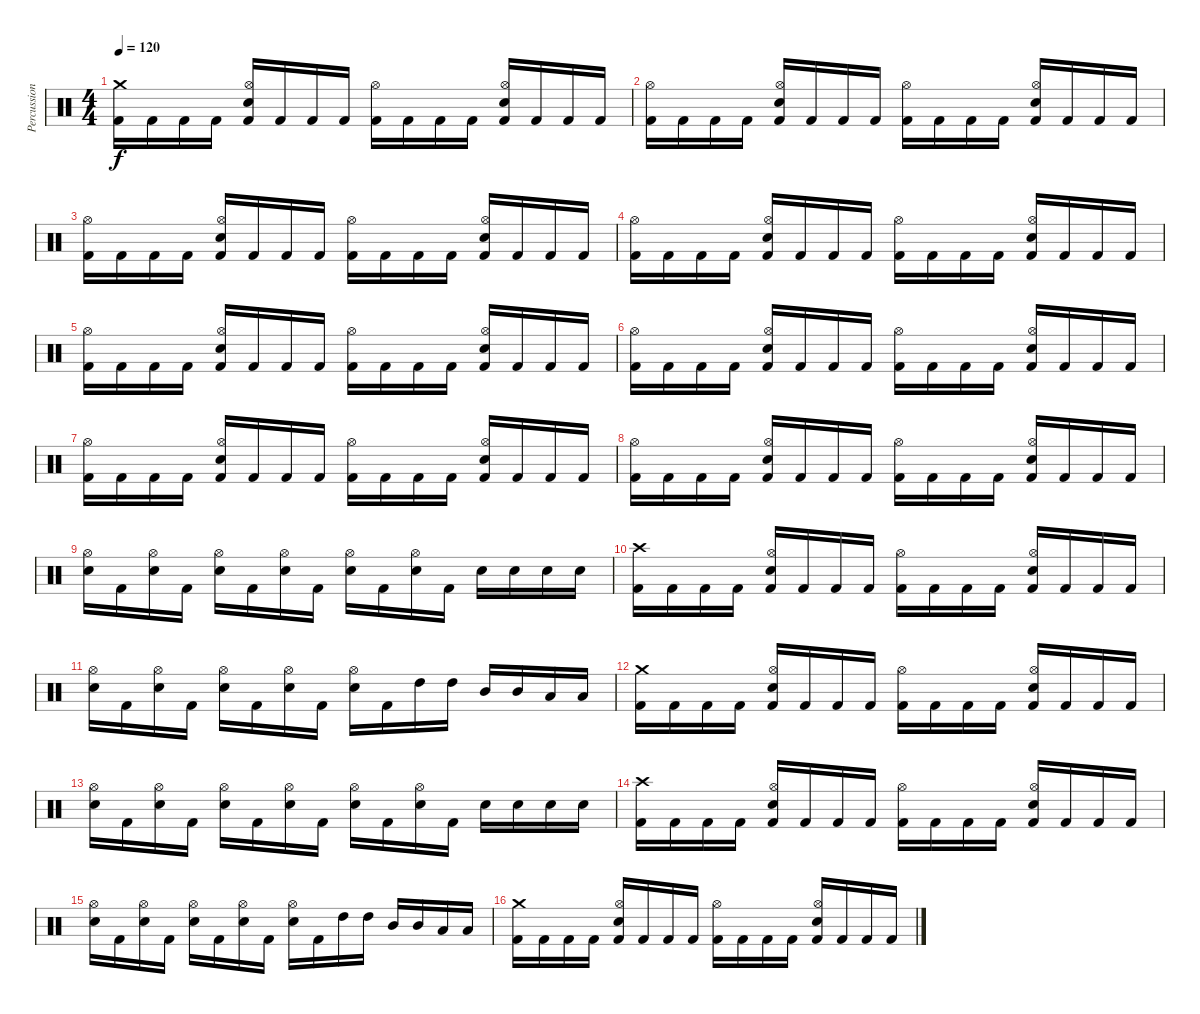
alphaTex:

\track ("Percussion" "Percussion") {instrument percussion}
\staff {score}
\articulation defaults
\ts (4 4)
\tempo 120
\clef neutral
\ks c
("Kick (hit) 2" "Crash medium (hit)").16{dy f} "Kick (hit) 2".16 "Kick (hit) 2".16 "Kick (hit) 2".16 ("Kick (hit) 2" "Hi-Hat (open)" "Electric Snare (hit)").16 "Kick (hit) 2".16 "Kick (hit) 2".16 "Kick (hit) 2".16 ("Kick (hit) 2" "Hi-Hat (open)").16 "Kick (hit) 2".16 "Kick (hit) 2".16 "Kick (hit) 2".16 ("Kick (hit) 2" "Hi-Hat (open)" "Electric Snare (hit)").16 "Kick (hit) 2".16 "Kick (hit) 2".16 "Kick (hit) 2".16 |
("Kick (hit) 2" "Hi-Hat (open)").16 "Kick (hit) 2".16 "Kick (hit) 2".16 "Kick (hit) 2".16 ("Kick (hit) 2" "Hi-Hat (open)" "Electric Snare (hit)").16 "Kick (hit) 2".16 "Kick (hit) 2".16 "Kick (hit) 2".16 ("Kick (hit) 2" "Hi-Hat (open)").16 "Kick (hit) 2".16 "Kick (hit) 2".16 "Kick (hit) 2".16 ("Kick (hit) 2" "Hi-Hat (open)" "Electric Snare (hit)").16 "Kick (hit) 2".16 "Kick (hit) 2".16 "Kick (hit) 2".16 |
("Kick (hit) 2" "Hi-Hat (open)").16 "Kick (hit) 2".16 "Kick (hit) 2".16 "Kick (hit) 2".16 ("Kick (hit) 2" "Hi-Hat (open)" "Electric Snare (hit)").16 "Kick (hit) 2".16 "Kick (hit) 2".16 "Kick (hit) 2".16 ("Kick (hit) 2" "Hi-Hat (open)").16 "Kick (hit) 2".16 "Kick (hit) 2".16 "Kick (hit) 2".16 ("Kick (hit) 2" "Hi-Hat (open)" "Electric Snare (hit)").16 "Kick (hit) 2".16 "Kick (hit) 2".16 "Kick (hit) 2".16 |
("Kick (hit) 2" "Hi-Hat (open)").16 "Kick (hit) 2".16 "Kick (hit) 2".16 "Kick (hit) 2".16 ("Kick (hit) 2" "Hi-Hat (open)" "Electric Snare (hit)").16 "Kick (hit) 2".16 "Kick (hit) 2".16 "Kick (hit) 2".16 ("Kick (hit) 2" "Hi-Hat (open)").16 "Kick (hit) 2".16 "Kick (hit) 2".16 "Kick (hit) 2".16 ("Kick (hit) 2" "Hi-Hat (open)" "Electric Snare (hit)").16 "Kick (hit) 2".16 "Kick (hit) 2".16 "Kick (hit) 2".16 |
("Kick (hit) 2" "Hi-Hat (open)").16 "Kick (hit) 2".16 "Kick (hit) 2".16 "Kick (hit) 2".16 ("Kick (hit) 2" "Hi-Hat (open)" "Electric Snare (hit)").16 "Kick (hit) 2".16 "Kick (hit) 2".16 "Kick (hit) 2".16 ("Kick (hit) 2" "Hi-Hat (open)").16 "Kick (hit) 2".16 "Kick (hit) 2".16 "Kick (hit) 2".16 ("Kick (hit) 2" "Hi-Hat (open)" "Electric Snare (hit)").16 "Kick (hit) 2".16 "Kick (hit) 2".16 "Kick (hit) 2".16 |
("Kick (hit) 2" "Hi-Hat (open)").16 "Kick (hit) 2".16 "Kick (hit) 2".16 "Kick (hit) 2".16 ("Kick (hit) 2" "Hi-Hat (open)" "Electric Snare (hit)").16 "Kick (hit) 2".16 "Kick (hit) 2".16 "Kick (hit) 2".16 ("Kick (hit) 2" "Hi-Hat (open)").16 "Kick (hit) 2".16 "Kick (hit) 2".16 "Kick (hit) 2".16 ("Kick (hit) 2" "Hi-Hat (open)" "Electric Snare (hit)").16 "Kick (hit) 2".16 "Kick (hit) 2".16 "Kick (hit) 2".16 |
("Kick (hit) 2" "Hi-Hat (open)").16 "Kick (hit) 2".16 "Kick (hit) 2".16 "Kick (hit) 2".16 ("Kick (hit) 2" "Hi-Hat (open)" "Electric Snare (hit)").16 "Kick (hit) 2".16 "Kick (hit) 2".16 "Kick (hit) 2".16 ("Kick (hit) 2" "Hi-Hat (open)").16 "Kick (hit) 2".16 "Kick (hit) 2".16 "Kick (hit) 2".16 ("Kick (hit) 2" "Hi-Hat (open)" "Electric Snare (hit)").16 "Kick (hit) 2".16 "Kick (hit) 2".16 "Kick (hit) 2".16 |
("Kick (hit) 2" "Hi-Hat (open)").16 "Kick (hit) 2".16 "Kick (hit) 2".16 "Kick (hit) 2".16 ("Kick (hit) 2" "Hi-Hat (open)" "Electric Snare (hit)").16 "Kick (hit) 2".16 "Kick (hit) 2".16 "Kick (hit) 2".16 ("Kick (hit) 2" "Hi-Hat (open)").16 "Kick (hit) 2".16 "Kick (hit) 2".16 "Kick (hit) 2".16 ("Kick (hit) 2" "Hi-Hat (open)" "Electric Snare (hit)").16 "Kick (hit) 2".16 "Kick (hit) 2".16 "Kick (hit) 2".16 |
("Electric Snare (hit)" "Hi-Hat (open)").16 "Kick (hit) 2".16 ("Electric Snare (hit)" "Hi-Hat (open)").16 "Kick (hit) 2".16 ("Electric Snare (hit)" "Hi-Hat (open)").16 "Kick (hit) 2".16 ("Electric Snare (hit)" "Hi-Hat (open)").16 "Kick (hit) 2".16 ("Electric Snare (hit)" "Hi-Hat (open)").16 "Kick (hit) 2".16 ("Electric Snare (hit)" "Hi-Hat (open)").16 "Kick (hit) 2".16 "Electric Snare (hit)".16 "Electric Snare (hit)".16 "Electric Snare (hit)".16 "Electric Snare (hit)".16 |
("Kick (hit) 2" "Crash high (hit)").16 "Kick (hit) 2".16 "Kick (hit) 2".16 "Kick (hit) 2".16 ("Kick (hit) 2" "Hi-Hat (open)" "Electric Snare (hit)").16 "Kick (hit) 2".16 "Kick (hit) 2".16 "Kick (hit) 2".16 ("Kick (hit) 2" "Hi-Hat (open)").16 "Kick (hit) 2".16 "Kick (hit) 2".16 "Kick (hit) 2".16 ("Kick (hit) 2" "Hi-Hat (open)" "Electric Snare (hit)").16 "Kick (hit) 2".16 "Kick (hit) 2".16 "Kick (hit) 2".16 |
("Electric Snare (hit)" "Hi-Hat (open)").16 "Kick (hit) 2".16 ("Electric Snare (hit)" "Hi-Hat (open)").16 "Kick (hit) 2".16 ("Electric Snare (hit)" "Hi-Hat (open)").16 "Kick (hit) 2".16 ("Electric Snare (hit)" "Hi-Hat (open)").16 "Kick (hit) 2".16 ("Electric Snare (hit)" "Hi-Hat (open)").16 "Kick (hit) 2".16 "High Tom (hit)".16 "High Tom (hit)".16 "Mid Tom (hit)".16 "Mid Tom (hit)".16 "Low Tom (hit)".16 "Low Tom (hit)".16 |
("Kick (hit) 2" "Crash medium (hit)").16 "Kick (hit) 2".16 "Kick (hit) 2".16 "Kick (hit) 2".16 ("Kick (hit) 2" "Hi-Hat (open)" "Electric Snare (hit)").16 "Kick (hit) 2".16 "Kick (hit) 2".16 "Kick (hit) 2".16 ("Kick (hit) 2" "Hi-Hat (open)").16 "Kick (hit) 2".16 "Kick (hit) 2".16 "Kick (hit) 2".16 ("Kick (hit) 2" "Hi-Hat (open)" "Electric Snare (hit)").16 "Kick (hit) 2".16 "Kick (hit) 2".16 "Kick (hit) 2".16 |
("Electric Snare (hit)" "Hi-Hat (open)").16 "Kick (hit) 2".16 ("Electric Snare (hit)" "Hi-Hat (open)").16 "Kick (hit) 2".16 ("Electric Snare (hit)" "Hi-Hat (open)").16 "Kick (hit) 2".16 ("Electric Snare (hit)" "Hi-Hat (open)").16 "Kick (hit) 2".16 ("Electric Snare (hit)" "Hi-Hat (open)").16 "Kick (hit) 2".16 ("Electric Snare (hit)" "Hi-Hat (open)").16 "Kick (hit) 2".16 "Electric Snare (hit)".16 "Electric Snare (hit)".16 "Electric Snare (hit)".16 "Electric Snare (hit)".16 |
("Kick (hit) 2" "Crash high (hit)").16 "Kick (hit) 2".16 "Kick (hit) 2".16 "Kick (hit) 2".16 ("Kick (hit) 2" "Hi-Hat (open)" "Electric Snare (hit)").16 "Kick (hit) 2".16 "Kick (hit) 2".16 "Kick (hit) 2".16 ("Kick (hit) 2" "Hi-Hat (open)").16 "Kick (hit) 2".16 "Kick (hit) 2".16 "Kick (hit) 2".16 ("Kick (hit) 2" "Hi-Hat (open)" "Electric Snare (hit)").16 "Kick (hit) 2".16 "Kick (hit) 2".16 "Kick (hit) 2".16 |
("Electric Snare (hit)" "Hi-Hat (open)").16 "Kick (hit) 2".16 ("Electric Snare (hit)" "Hi-Hat (open)").16 "Kick (hit) 2".16 ("Electric Snare (hit)" "Hi-Hat (open)").16 "Kick (hit) 2".16 ("Electric Snare (hit)" "Hi-Hat (open)").16 "Kick (hit) 2".16 ("Electric Snare (hit)" "Hi-Hat (open)").16 "Kick (hit) 2".16 "High Tom (hit)".16 "High Tom (hit)".16 "Mid Tom (hit)".16 "Mid Tom (hit)".16 "Low Tom (hit)".16 "Low Tom (hit)".16 |
("Kick (hit) 2" "Crash medium (hit)").16 "Kick (hit) 2".16 "Kick (hit) 2".16 "Kick (hit) 2".16 ("Kick (hit) 2" "Hi-Hat (open)" "Electric Snare (hit)").16 "Kick (hit) 2".16 "Kick (hit) 2".16 "Kick (hit) 2".16 ("Kick (hit) 2" "Hi-Hat (open)").16 "Kick (hit) 2".16 "Kick (hit) 2".16 "Kick (hit) 2".16 ("Kick (hit) 2" "Hi-Hat (open)" "Electric Snare (hit)").16 "Kick (hit) 2".16 "Kick (hit) 2".16 "Kick (hit) 2".16
